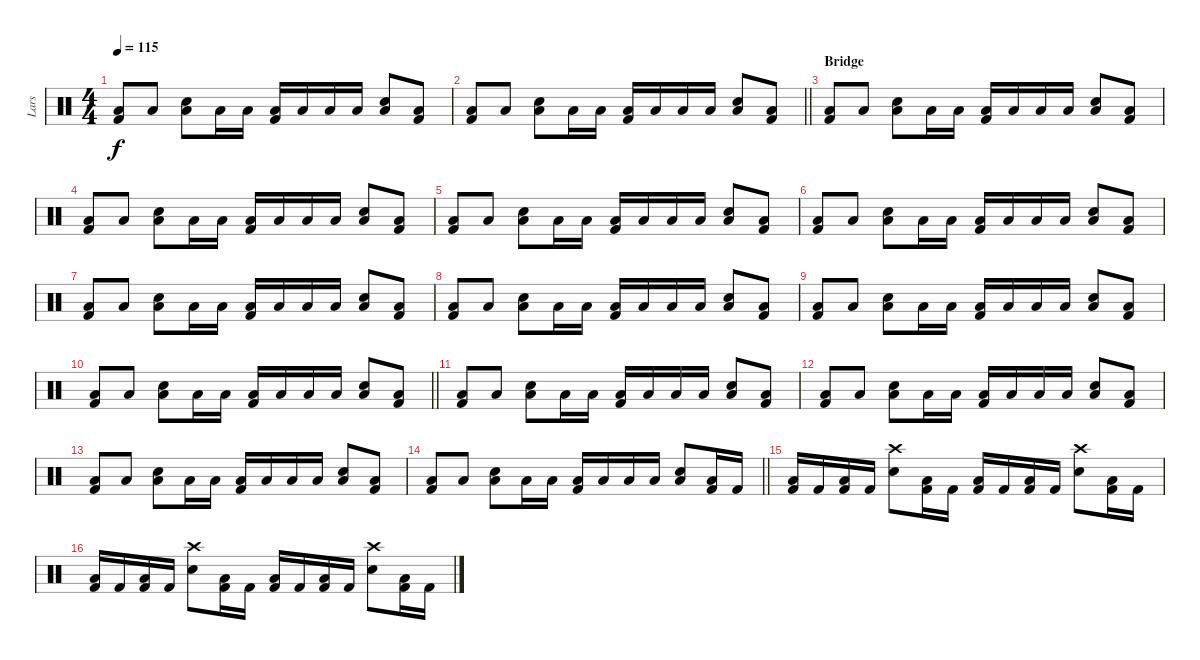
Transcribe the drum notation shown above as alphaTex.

\track ("Lars" "Lars") {instrument percussion}
\staff {score}
\articulation defaults
\ts (4 4)
\tempo 115
\clef neutral
\ks c
("Low Floor Tom (hit)" "Kick (hit) 2").8{dy f} "Low Floor Tom (hit)".8 ("Electric Snare (hit)" "Low Floor Tom (hit)").8 "Low Floor Tom (hit)".16 "Low Tom (hit)".16 ("Low Floor Tom (hit)" "Kick (hit) 2").16 "Low Tom (hit)".16 "Low Floor Tom (hit)".16 "Low Tom (hit)".16 ("Electric Snare (hit)" "Low Floor Tom (hit)").8 ("Low Floor Tom (hit)" "Kick (hit) 2").8 |
\barLineRight lightlight
("Low Floor Tom (hit)" "Kick (hit) 2").8 "Low Floor Tom (hit)".8 ("Electric Snare (hit)" "Low Floor Tom (hit)").8 "Low Floor Tom (hit)".16 "Low Tom (hit)".16 ("Low Floor Tom (hit)" "Kick (hit) 2").16 "Low Tom (hit)".16 "Low Floor Tom (hit)".16 "Low Tom (hit)".16 ("Electric Snare (hit)" "Low Floor Tom (hit)").8 ("Low Floor Tom (hit)" "Kick (hit) 2").8 |
\section ("" "Bridge")
("Low Floor Tom (hit)" "Kick (hit) 2").8 "Low Floor Tom (hit)".8 ("Electric Snare (hit)" "Low Floor Tom (hit)").8 "Low Floor Tom (hit)".16 "Low Tom (hit)".16 ("Low Floor Tom (hit)" "Kick (hit) 2").16 "Low Tom (hit)".16 "Low Floor Tom (hit)".16 "Low Tom (hit)".16 ("Electric Snare (hit)" "Low Floor Tom (hit)").8 ("Low Floor Tom (hit)" "Kick (hit) 2").8 |
("Low Floor Tom (hit)" "Kick (hit) 2").8 "Low Floor Tom (hit)".8 ("Electric Snare (hit)" "Low Floor Tom (hit)").8 "Low Floor Tom (hit)".16 "Low Tom (hit)".16 ("Low Floor Tom (hit)" "Kick (hit) 2").16 "Low Tom (hit)".16 "Low Floor Tom (hit)".16 "Low Tom (hit)".16 ("Electric Snare (hit)" "Low Floor Tom (hit)").8 ("Low Floor Tom (hit)" "Kick (hit) 2").8 |
("Low Floor Tom (hit)" "Kick (hit) 2").8 "Low Floor Tom (hit)".8 ("Electric Snare (hit)" "Low Floor Tom (hit)").8 "Low Floor Tom (hit)".16 "Low Tom (hit)".16 ("Low Floor Tom (hit)" "Kick (hit) 2").16 "Low Tom (hit)".16 "Low Floor Tom (hit)".16 "Low Tom (hit)".16 ("Electric Snare (hit)" "Low Floor Tom (hit)").8 ("Low Floor Tom (hit)" "Kick (hit) 2").8 |
("Low Floor Tom (hit)" "Kick (hit) 2").8 "Low Floor Tom (hit)".8 ("Electric Snare (hit)" "Low Floor Tom (hit)").8 "Low Floor Tom (hit)".16 "Low Tom (hit)".16 ("Low Floor Tom (hit)" "Kick (hit) 2").16 "Low Tom (hit)".16 "Low Floor Tom (hit)".16 "Low Tom (hit)".16 ("Electric Snare (hit)" "Low Floor Tom (hit)").8 ("Low Floor Tom (hit)" "Kick (hit) 2").8 |
("Low Floor Tom (hit)" "Kick (hit) 2").8 "Low Floor Tom (hit)".8 ("Electric Snare (hit)" "Low Floor Tom (hit)").8 "Low Floor Tom (hit)".16 "Low Tom (hit)".16 ("Low Floor Tom (hit)" "Kick (hit) 2").16 "Low Tom (hit)".16 "Low Floor Tom (hit)".16 "Low Tom (hit)".16 ("Electric Snare (hit)" "Low Floor Tom (hit)").8 ("Low Floor Tom (hit)" "Kick (hit) 2").8 |
("Low Floor Tom (hit)" "Kick (hit) 2").8 "Low Floor Tom (hit)".8 ("Electric Snare (hit)" "Low Floor Tom (hit)").8 "Low Floor Tom (hit)".16 "Low Tom (hit)".16 ("Low Floor Tom (hit)" "Kick (hit) 2").16 "Low Tom (hit)".16 "Low Floor Tom (hit)".16 "Low Tom (hit)".16 ("Electric Snare (hit)" "Low Floor Tom (hit)").8 ("Low Floor Tom (hit)" "Kick (hit) 2").8 |
("Low Floor Tom (hit)" "Kick (hit) 2").8 "Low Floor Tom (hit)".8 ("Electric Snare (hit)" "Low Floor Tom (hit)").8 "Low Floor Tom (hit)".16 "Low Tom (hit)".16 ("Low Floor Tom (hit)" "Kick (hit) 2").16 "Low Tom (hit)".16 "Low Floor Tom (hit)".16 "Low Tom (hit)".16 ("Electric Snare (hit)" "Low Floor Tom (hit)").8 ("Low Floor Tom (hit)" "Kick (hit) 2").8 |
\barLineRight lightlight
("Low Floor Tom (hit)" "Kick (hit) 2").8 "Low Floor Tom (hit)".8 ("Electric Snare (hit)" "Low Floor Tom (hit)").8 "Low Floor Tom (hit)".16 "Low Tom (hit)".16 ("Low Floor Tom (hit)" "Kick (hit) 2").16 "Low Tom (hit)".16 "Low Floor Tom (hit)".16 "Low Tom (hit)".16 ("Electric Snare (hit)" "Low Floor Tom (hit)").8 ("Low Floor Tom (hit)" "Kick (hit) 2").8 |
\section ("" "")
("Low Floor Tom (hit)" "Kick (hit) 2").8 "Low Floor Tom (hit)".8 ("Electric Snare (hit)" "Low Floor Tom (hit)").8 "Low Floor Tom (hit)".16 "Low Tom (hit)".16 ("Low Floor Tom (hit)" "Kick (hit) 2").16 "Low Tom (hit)".16 "Low Floor Tom (hit)".16 "Low Tom (hit)".16 ("Electric Snare (hit)" "Low Floor Tom (hit)").8 ("Low Floor Tom (hit)" "Kick (hit) 2").8 |
("Low Floor Tom (hit)" "Kick (hit) 2").8 "Low Floor Tom (hit)".8 ("Electric Snare (hit)" "Low Floor Tom (hit)").8 "Low Floor Tom (hit)".16 "Low Tom (hit)".16 ("Low Floor Tom (hit)" "Kick (hit) 2").16 "Low Tom (hit)".16 "Low Floor Tom (hit)".16 "Low Tom (hit)".16 ("Electric Snare (hit)" "Low Floor Tom (hit)").8 ("Low Floor Tom (hit)" "Kick (hit) 2").8 |
("Low Floor Tom (hit)" "Kick (hit) 2").8 "Low Floor Tom (hit)".8 ("Electric Snare (hit)" "Low Floor Tom (hit)").8 "Low Floor Tom (hit)".16 "Low Tom (hit)".16 ("Low Floor Tom (hit)" "Kick (hit) 2").16 "Low Tom (hit)".16 "Low Floor Tom (hit)".16 "Low Tom (hit)".16 ("Electric Snare (hit)" "Low Floor Tom (hit)").8 ("Low Floor Tom (hit)" "Kick (hit) 2").8 |
\barLineRight lightlight
("Low Floor Tom (hit)" "Kick (hit) 2").8 "Low Floor Tom (hit)".8 ("Electric Snare (hit)" "Low Floor Tom (hit)").8 "Low Floor Tom (hit)".16 "Low Tom (hit)".16 ("Low Floor Tom (hit)" "Kick (hit) 2").16 "Low Tom (hit)".16 "Low Floor Tom (hit)".16 "Low Tom (hit)".16 ("Electric Snare (hit)" "Low Floor Tom (hit)").8 ("Low Floor Tom (hit)" "Kick (hit) 2").16 "Kick (hit) 2".16 |
("Low Floor Tom (hit)" "Kick (hit) 2").16 "Kick (hit) 2".16 ("Low Floor Tom (hit)" "Kick (hit) 2").16 "Kick (hit) 2".16 ("Crash high (hit)" "Electric Snare (hit)").8 ("Low Floor Tom (hit)" "Kick (hit) 2").16 "Kick (hit) 2".16 ("Low Floor Tom (hit)" "Kick (hit) 2").16 "Kick (hit) 2".16 ("Low Floor Tom (hit)" "Kick (hit) 2").16 "Kick (hit) 2".16 ("Crash high (hit)" "Electric Snare (hit)").8 ("Low Floor Tom (hit)" "Kick (hit) 2").16 "Kick (hit) 2".16 |
("Low Floor Tom (hit)" "Kick (hit) 2").16 "Kick (hit) 2".16 ("Low Floor Tom (hit)" "Kick (hit) 2").16 "Kick (hit) 2".16 ("Crash high (hit)" "Electric Snare (hit)").8 ("Low Floor Tom (hit)" "Kick (hit) 2").16 "Kick (hit) 2".16 ("Low Floor Tom (hit)" "Kick (hit) 2").16 "Kick (hit) 2".16 ("Low Floor Tom (hit)" "Kick (hit) 2").16 "Kick (hit) 2".16 ("Crash high (hit)" "Electric Snare (hit)").8 ("Low Floor Tom (hit)" "Kick (hit) 2").16 "Kick (hit) 2".16
